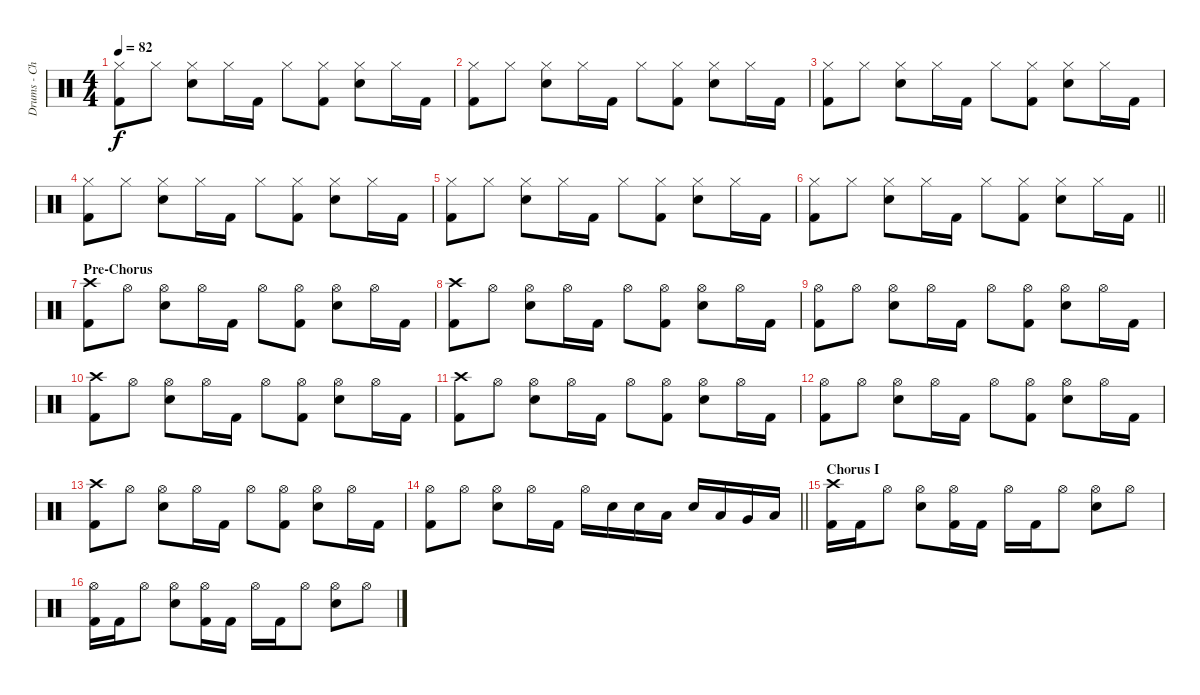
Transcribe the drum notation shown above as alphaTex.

\track ("Drums - Christoph Schneider" "Drums - Ch") {instrument percussion}
\staff {score}
\articulation defaults
\ts (4 4)
\tempo 82
\clef neutral
\ks c
("Hi-Hat (closed)" "Kick (hit) 2").8{dy f} "Hi-Hat (closed)".8 ("Hi-Hat (closed)" "Snare (hit) 2").8 "Hi-Hat (closed)".16 "Kick (hit) 2".16 "Hi-Hat (closed)".8 ("Hi-Hat (closed)" "Kick (hit) 2").8 ("Hi-Hat (closed)" "Snare (hit) 2").8 "Hi-Hat (closed)".16 "Kick (hit) 2".16 |
("Hi-Hat (closed)" "Kick (hit) 2").8 "Hi-Hat (closed)".8 ("Hi-Hat (closed)" "Snare (hit) 2").8 "Hi-Hat (closed)".16 "Kick (hit) 2".16 "Hi-Hat (closed)".8 ("Hi-Hat (closed)" "Kick (hit) 2").8 ("Hi-Hat (closed)" "Snare (hit) 2").8 "Hi-Hat (closed)".16 "Kick (hit) 2".16 |
("Hi-Hat (closed)" "Kick (hit) 2").8 "Hi-Hat (closed)".8 ("Hi-Hat (closed)" "Snare (hit) 2").8 "Hi-Hat (closed)".16 "Kick (hit) 2".16 "Hi-Hat (closed)".8 ("Hi-Hat (closed)" "Kick (hit) 2").8 ("Hi-Hat (closed)" "Snare (hit) 2").8 "Hi-Hat (closed)".16 "Kick (hit) 2".16 |
("Hi-Hat (closed)" "Kick (hit) 2").8 "Hi-Hat (closed)".8 ("Hi-Hat (closed)" "Snare (hit) 2").8 "Hi-Hat (closed)".16 "Kick (hit) 2".16 "Hi-Hat (closed)".8 ("Hi-Hat (closed)" "Kick (hit) 2").8 ("Hi-Hat (closed)" "Snare (hit) 2").8 "Hi-Hat (closed)".16 "Kick (hit) 2".16 |
("Hi-Hat (closed)" "Kick (hit) 2").8 "Hi-Hat (closed)".8 ("Hi-Hat (closed)" "Snare (hit) 2").8 "Hi-Hat (closed)".16 "Kick (hit) 2".16 "Hi-Hat (closed)".8 ("Hi-Hat (closed)" "Kick (hit) 2").8 ("Hi-Hat (closed)" "Snare (hit) 2").8 "Hi-Hat (closed)".16 "Kick (hit) 2".16 |
\barLineRight lightlight
("Hi-Hat (closed)" "Kick (hit) 2").8 "Hi-Hat (closed)".8 ("Hi-Hat (closed)" "Snare (hit) 2").8 "Hi-Hat (closed)".16 "Kick (hit) 2".16 "Hi-Hat (closed)".8 ("Hi-Hat (closed)" "Kick (hit) 2").8 ("Hi-Hat (closed)" "Snare (hit) 2").8 "Hi-Hat (closed)".16 "Kick (hit) 2".16 |
\section ("" "Pre-Chorus")
("Crash high (hit)" "Kick (hit) 2").8 "Hi-Hat (open)".8 ("Hi-Hat (open)" "Snare (hit) 2").8 "Hi-Hat (open)".16 "Kick (hit) 2".16 "Hi-Hat (open)".8 ("Hi-Hat (open)" "Kick (hit) 2").8 ("Hi-Hat (open)" "Snare (hit) 2").8 "Hi-Hat (open)".16 "Kick (hit) 2".16 |
("Crash high (hit)" "Kick (hit) 2").8 "Hi-Hat (open)".8 ("Hi-Hat (open)" "Snare (hit) 2").8 "Hi-Hat (open)".16 "Kick (hit) 2".16 "Hi-Hat (open)".8 ("Hi-Hat (open)" "Kick (hit) 2").8 ("Hi-Hat (open)" "Snare (hit) 2").8 "Hi-Hat (open)".16 "Kick (hit) 2".16 |
("Hi-Hat (open)" "Kick (hit) 2").8 "Hi-Hat (open)".8 ("Hi-Hat (open)" "Snare (hit) 2").8 "Hi-Hat (open)".16 "Kick (hit) 2".16 "Hi-Hat (open)".8 ("Hi-Hat (open)" "Kick (hit) 2").8 ("Hi-Hat (open)" "Snare (hit) 2").8 "Hi-Hat (open)".16 "Kick (hit) 2".16 |
("Crash high (hit)" "Kick (hit) 2").8 "Hi-Hat (open)".8 ("Hi-Hat (open)" "Snare (hit) 2").8 "Hi-Hat (open)".16 "Kick (hit) 2".16 "Hi-Hat (open)".8 ("Hi-Hat (open)" "Kick (hit) 2").8 ("Hi-Hat (open)" "Snare (hit) 2").8 "Hi-Hat (open)".16 "Kick (hit) 2".16 |
("Crash high (hit)" "Kick (hit) 2").8 "Hi-Hat (open)".8 ("Hi-Hat (open)" "Snare (hit) 2").8 "Hi-Hat (open)".16 "Kick (hit) 2".16 "Hi-Hat (open)".8 ("Hi-Hat (open)" "Kick (hit) 2").8 ("Hi-Hat (open)" "Snare (hit) 2").8 "Hi-Hat (open)".16 "Kick (hit) 2".16 |
("Hi-Hat (open)" "Kick (hit) 2").8 "Hi-Hat (open)".8 ("Hi-Hat (open)" "Snare (hit) 2").8 "Hi-Hat (open)".16 "Kick (hit) 2".16 "Hi-Hat (open)".8 ("Hi-Hat (open)" "Kick (hit) 2").8 ("Hi-Hat (open)" "Snare (hit) 2").8 "Hi-Hat (open)".16 "Kick (hit) 2".16 |
("Crash high (hit)" "Kick (hit) 2").8 "Hi-Hat (open)".8 ("Hi-Hat (open)" "Snare (hit) 2").8 "Hi-Hat (open)".16 "Kick (hit) 2".16 "Hi-Hat (open)".8 ("Hi-Hat (open)" "Kick (hit) 2").8 ("Hi-Hat (open)" "Snare (hit) 2").8 "Hi-Hat (open)".16 "Kick (hit) 2".16 |
\barLineRight lightlight
("Hi-Hat (open)" "Kick (hit) 2").8 "Hi-Hat (open)".8 ("Hi-Hat (open)" "Snare (hit) 2").8 "Hi-Hat (open)".16 "Kick (hit) 2".16 "Hi-Hat (open)".16 "Snare (hit) 2".16 "Snare (hit) 2".16 "Low Tom (hit)".16 "Snare (hit) 2".16 "Low Tom (hit)".16 "Very Low Tom (hit)".16 "Low Floor Tom (hit)".16 |
\section ("" "Chorus I")
("Crash high (hit)" "Kick (hit) 2").16 "Kick (hit) 2".16 "Hi-Hat (open)".8 ("Hi-Hat (open)" "Snare (hit) 2").8 ("Hi-Hat (open)" "Kick (hit) 2").16 "Kick (hit) 2".16 "Hi-Hat (open)".16 "Kick (hit) 2".16 "Hi-Hat (open)".8 ("Hi-Hat (open)" "Snare (hit) 2").8 "Hi-Hat (open)".8 |
("Hi-Hat (open)" "Kick (hit) 2").16 "Kick (hit) 2".16 "Hi-Hat (open)".8 ("Hi-Hat (open)" "Snare (hit) 2").8 ("Hi-Hat (open)" "Kick (hit) 2").16 "Kick (hit) 2".16 "Hi-Hat (open)".16 "Kick (hit) 2".16 "Hi-Hat (open)".8 ("Hi-Hat (open)" "Snare (hit) 2").8 "Hi-Hat (open)".8
